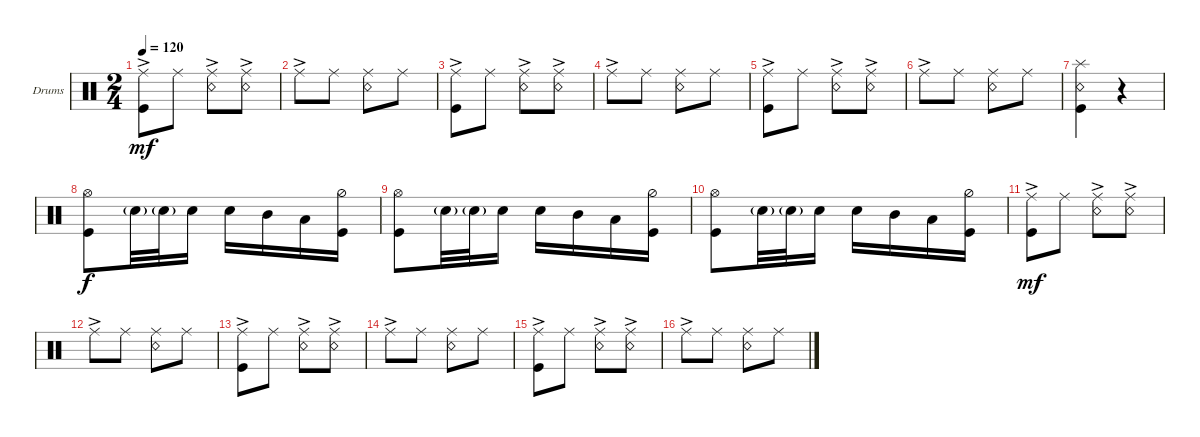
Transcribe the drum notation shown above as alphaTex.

\defaultSystemsLayout 4
\bracketExtendMode groupsimilarinstruments
\firstSystemTrackNameOrientation horizontal
\otherSystemsTrackNameOrientation horizontal
\track ("Drumkit" "Drums") {instrument percussion}
\staff {score}
\articulation defaults
\ts (2 4)
\tempo 120
\clef neutral
\ks c
("Ride (middle)"{ac} "Kick (hit)").8{dy mf} "Ride (middle)".8 ("Ride (middle)" "Snare (rim shot)"{ac}).8 ("Ride (middle)" "Snare (rim shot)"{ac}).8 |
"Ride (middle)"{ac}.8 "Ride (middle)".8 ("Ride (middle)" "Snare (rim shot)").8 "Ride (middle)".8 |
("Ride (middle)"{ac} "Kick (hit)").8 "Ride (middle)".8 ("Ride (middle)" "Snare (rim shot)"{ac}).8 ("Ride (middle)" "Snare (rim shot)"{ac}).8 |
"Ride (middle)"{ac}.8 "Ride (middle)".8 ("Ride (middle)" "Snare (rim shot)").8 "Ride (middle)".8 |
("Ride (middle)"{ac} "Kick (hit)").8 "Ride (middle)".8 ("Ride (middle)" "Snare (rim shot)"{ac}).8 ("Ride (middle)" "Snare (rim shot)"{ac}).8 |
"Ride (middle)"{ac}.8 "Ride (middle)".8 ("Ride (middle)" "Snare (rim shot)").8 "Ride (middle)".8 |
("Kick (hit)" "Snare (rim shot)" "Splash (hit)").4 r.4 |
("Hi-Hat (open)" "Kick (hit)").8{dy f} "Snare (hit) 2"{g}.32 "Snare (hit) 2"{g}.32 "Snare (hit) 2".16 "Snare (hit) 2".16 "Mid Tom (hit)".16 "Low Tom (hit)".16 ("Kick (hit)" "Hi-Hat (half)").16 |
("Hi-Hat (open)" "Kick (hit)").8 "Snare (hit) 2"{g}.32 "Snare (hit) 2"{g}.32 "Snare (hit) 2".16 "Snare (hit) 2".16 "Mid Tom (hit)".16 "Low Tom (hit)".16 ("Kick (hit)" "Hi-Hat (half)").16 |
("Hi-Hat (open)" "Kick (hit)").8 "Snare (hit) 2"{g}.32 "Snare (hit) 2"{g}.32 "Snare (hit) 2".16 "Snare (hit) 2".16 "Mid Tom (hit)".16 "Low Tom (hit)".16 ("Kick (hit)" "Hi-Hat (half)").16 |
("Ride (middle)"{ac} "Kick (hit)").8{dy mf} "Ride (middle)".8 ("Ride (middle)" "Snare (rim shot)"{ac}).8 ("Ride (middle)" "Snare (rim shot)"{ac}).8 |
"Ride (middle)"{ac}.8 "Ride (middle)".8 ("Ride (middle)" "Snare (rim shot)").8 "Ride (middle)".8 |
("Ride (middle)"{ac} "Kick (hit)").8 "Ride (middle)".8 ("Ride (middle)" "Snare (rim shot)"{ac}).8 ("Ride (middle)" "Snare (rim shot)"{ac}).8 |
"Ride (middle)"{ac}.8 "Ride (middle)".8 ("Ride (middle)" "Snare (rim shot)").8 "Ride (middle)".8 |
("Ride (middle)"{ac} "Kick (hit)").8 "Ride (middle)".8 ("Ride (middle)" "Snare (rim shot)"{ac}).8 ("Ride (middle)" "Snare (rim shot)"{ac}).8 |
"Ride (middle)"{ac}.8 "Ride (middle)".8 ("Ride (middle)" "Snare (rim shot)").8 "Ride (middle)".8
